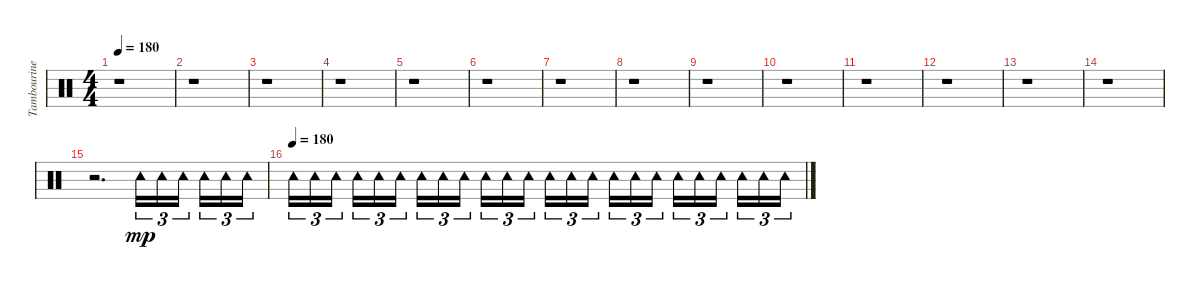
\track ("Tambourine" "Tambourine") {instrument percussion}
\staff {score}
\articulation defaults
\ts (4 4)
\tempo 180
\clef neutral
\ks c
r.1{dy mp} |
r.1 |
r.1 |
r.1 |
r.1 |
r.1 |
r.1 |
r.1 |
r.1 |
r.1 |
r.1 |
r.1 |
r.1 |
r.1 |
r.2{d} "Tambourine (hit)".16{tu (3 2)} "Tambourine (hit)".16{tu (3 2)} "Tambourine (hit)".16{tu (3 2)} "Tambourine (hit)".16{tu (3 2)} "Tambourine (hit)".16{tu (3 2)} "Tambourine (hit)".16{tu (3 2)} |
\tempo (180)
"Tambourine (hit)".16{tu (3 2)} "Tambourine (hit)".16{tu (3 2)} "Tambourine (hit)".16{tu (3 2)} "Tambourine (hit)".16{tu (3 2)} "Tambourine (hit)".16{tu (3 2)} "Tambourine (hit)".16{tu (3 2)} "Tambourine (hit)".16{tu (3 2)} "Tambourine (hit)".16{tu (3 2)} "Tambourine (hit)".16{tu (3 2)} "Tambourine (hit)".16{tu (3 2)} "Tambourine (hit)".16{tu (3 2)} "Tambourine (hit)".16{tu (3 2)} "Tambourine (hit)".16{tu (3 2)} "Tambourine (hit)".16{tu (3 2)} "Tambourine (hit)".16{tu (3 2)} "Tambourine (hit)".16{tu (3 2)} "Tambourine (hit)".16{tu (3 2)} "Tambourine (hit)".16{tu (3 2)} "Tambourine (hit)".16{tu (3 2)} "Tambourine (hit)".16{tu (3 2)} "Tambourine (hit)".16{tu (3 2)} "Tambourine (hit)".16{tu (3 2)} "Tambourine (hit)".16{tu (3 2)} "Tambourine (hit)".16{tu (3 2)}
